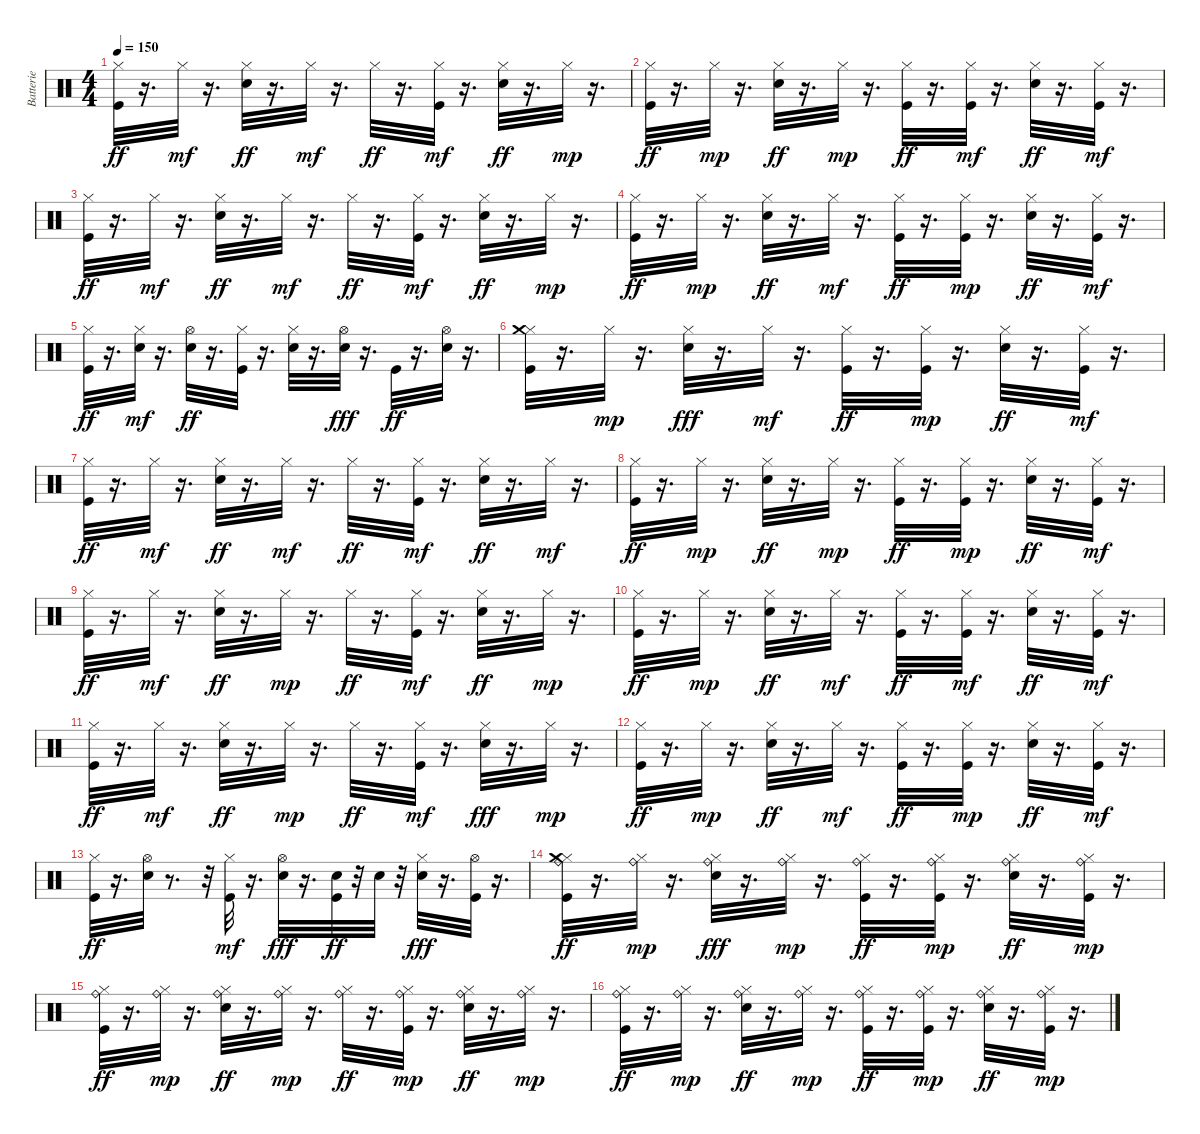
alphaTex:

\track ("Batterie" "Batterie") {instrument percussion}
\staff {score}
\articulation defaults
\ts (4 4)
\tempo 150
\clef neutral
\ks c
("Kick (hit)" "Hi-Hat (closed)").32{dy ff} r.16{d} "Hi-Hat (closed)".32{dy mf} r.16{d} ("Snare (hit) 2" "Hi-Hat (closed)").32{dy ff} r.16{d} "Hi-Hat (closed)".32{dy mf} r.16{d} "Hi-Hat (closed)".32{dy ff} r.16{d} ("Kick (hit)" "Hi-Hat (closed)").32{dy mf} r.16{d} ("Snare (hit) 2" "Hi-Hat (closed)").32{dy ff} r.16{d} "Hi-Hat (closed)".32{dy mp} r.16{d} |
("Kick (hit)" "Hi-Hat (closed)").32{dy ff} r.16{d} "Hi-Hat (closed)".32{dy mp} r.16{d} ("Snare (hit) 2" "Hi-Hat (closed)").32{dy ff} r.16{d} "Hi-Hat (closed)".32{dy mp} r.16{d} ("Kick (hit)" "Hi-Hat (closed)").32{dy ff} r.16{d} ("Kick (hit)" "Hi-Hat (closed)").32{dy mf} r.16{d} ("Snare (hit) 2" "Hi-Hat (closed)").32{dy ff} r.16{d} ("Kick (hit)" "Hi-Hat (closed)").32{dy mf} r.16{d} |
("Kick (hit)" "Hi-Hat (closed)").32{dy ff} r.16{d} "Hi-Hat (closed)".32{dy mf} r.16{d} ("Snare (hit) 2" "Hi-Hat (closed)").32{dy ff} r.16{d} "Hi-Hat (closed)".32{dy mf} r.16{d} "Hi-Hat (closed)".32{dy ff} r.16{d} ("Kick (hit)" "Hi-Hat (closed)").32{dy mf} r.16{d} ("Snare (hit) 2" "Hi-Hat (closed)").32{dy ff} r.16{d} "Hi-Hat (closed)".32{dy mp} r.16{d} |
("Kick (hit)" "Hi-Hat (closed)").32{dy ff} r.16{d} "Hi-Hat (closed)".32{dy mp} r.16{d} ("Snare (hit) 2" "Hi-Hat (closed)").32{dy ff} r.16{d} "Hi-Hat (closed)".32{dy mf} r.16{d} ("Kick (hit)" "Hi-Hat (closed)").32{dy ff} r.16{d} ("Kick (hit)" "Hi-Hat (closed)").32{dy mp} r.16{d} ("Snare (hit) 2" "Hi-Hat (closed)").32{dy ff} r.16{d} ("Kick (hit)" "Hi-Hat (closed)").32{dy mf} r.16{d} |
("Kick (hit)" "Hi-Hat (closed)").32{dy ff} r.16{d} ("Snare (hit) 2" "Hi-Hat (closed)").32{dy mf} r.16{d} ("Snare (hit) 2" "Hi-Hat (open)").32{dy ff} r.16{d} ("Kick (hit)" "Hi-Hat (closed)").32 r.16{d} ("Snare (hit) 2" "Hi-Hat (closed)").32 r.16{d} ("Snare (hit) 2" "Hi-Hat (open)").32{dy fff} r.16{d} "Kick (hit)".32{dy ff} r.16{d} ("Snare (hit) 2" "Hi-Hat (open)").32 r.16{d} |
("Kick (hit)" "Hi-Hat (closed)" "Crash medium (hit)").32 r.16{d} "Hi-Hat (closed)".32{dy mp} r.16{d} ("Snare (hit) 2" "Hi-Hat (closed)").32{dy fff} r.16{d} "Hi-Hat (closed)".32{dy mf} r.16{d} ("Kick (hit)" "Hi-Hat (closed)").32{dy ff} r.16{d} ("Kick (hit)" "Hi-Hat (closed)").32{dy mp} r.16{d} ("Snare (hit) 2" "Hi-Hat (closed)").32{dy ff} r.16{d} ("Kick (hit)" "Hi-Hat (closed)").32{dy mf} r.16{d} |
("Kick (hit)" "Hi-Hat (closed)").32{dy ff} r.16{d} "Hi-Hat (closed)".32{dy mf} r.16{d} ("Snare (hit) 2" "Hi-Hat (closed)").32{dy ff} r.16{d} "Hi-Hat (closed)".32{dy mf} r.16{d} "Hi-Hat (closed)".32{dy ff} r.16{d} ("Kick (hit)" "Hi-Hat (closed)").32{dy mf} r.16{d} ("Snare (hit) 2" "Hi-Hat (closed)").32{dy ff} r.16{d} "Hi-Hat (closed)".32{dy mf} r.16{d} |
("Kick (hit)" "Hi-Hat (closed)").32{dy ff} r.16{d} "Hi-Hat (closed)".32{dy mp} r.16{d} ("Snare (hit) 2" "Hi-Hat (closed)").32{dy ff} r.16{d} "Hi-Hat (closed)".32{dy mp} r.16{d} ("Kick (hit)" "Hi-Hat (closed)").32{dy ff} r.16{d} ("Kick (hit)" "Hi-Hat (closed)").32{dy mp} r.16{d} ("Snare (hit) 2" "Hi-Hat (closed)").32{dy ff} r.16{d} ("Kick (hit)" "Hi-Hat (closed)").32{dy mf} r.16{d} |
("Kick (hit)" "Hi-Hat (closed)").32{dy ff} r.16{d} "Hi-Hat (closed)".32{dy mf} r.16{d} ("Snare (hit) 2" "Hi-Hat (closed)").32{dy ff} r.16{d} "Hi-Hat (closed)".32{dy mp} r.16{d} "Hi-Hat (closed)".32{dy ff} r.16{d} ("Kick (hit)" "Hi-Hat (closed)").32{dy mf} r.16{d} ("Snare (hit) 2" "Hi-Hat (closed)").32{dy ff} r.16{d} "Hi-Hat (closed)".32{dy mp} r.16{d} |
("Kick (hit)" "Hi-Hat (closed)").32{dy ff} r.16{d} "Hi-Hat (closed)".32{dy mp} r.16{d} ("Snare (hit) 2" "Hi-Hat (closed)").32{dy ff} r.16{d} "Hi-Hat (closed)".32{dy mf} r.16{d} ("Kick (hit)" "Hi-Hat (closed)").32{dy ff} r.16{d} ("Kick (hit)" "Hi-Hat (closed)").32{dy mf} r.16{d} ("Snare (hit) 2" "Hi-Hat (closed)").32{dy ff} r.16{d} ("Kick (hit)" "Hi-Hat (closed)").32{dy mf} r.16{d} |
("Kick (hit)" "Hi-Hat (closed)").32{dy ff} r.16{d} "Hi-Hat (closed)".32{dy mf} r.16{d} ("Snare (hit) 2" "Hi-Hat (closed)").32{dy ff} r.16{d} "Hi-Hat (closed)".32{dy mp} r.16{d} "Hi-Hat (closed)".32{dy ff} r.16{d} ("Kick (hit)" "Hi-Hat (closed)").32{dy mf} r.16{d} ("Snare (hit) 2" "Hi-Hat (closed)").32{dy fff} r.16{d} "Hi-Hat (closed)".32{dy mp} r.16{d} |
("Kick (hit)" "Hi-Hat (closed)").32{dy ff} r.16{d} "Hi-Hat (closed)".32{dy mp} r.16{d} ("Snare (hit) 2" "Hi-Hat (closed)").32{dy ff} r.16{d} "Hi-Hat (closed)".32{dy mf} r.16{d} ("Kick (hit)" "Hi-Hat (closed)").32{dy ff} r.16{d} ("Kick (hit)" "Hi-Hat (closed)").32{dy mp} r.16{d} ("Snare (hit) 2" "Hi-Hat (closed)").32{dy ff} r.16{d} ("Kick (hit)" "Hi-Hat (closed)").32{dy mf} r.16{d} |
("Kick (hit)" "Hi-Hat (closed)").32{dy ff} r.16{d} ("Snare (hit) 2" "Hi-Hat (open)").32 r.8{d} r.32 ("Kick (hit)" "Hi-Hat (closed)").32{dy mf} r.16{d} ("Snare (hit) 2" "Hi-Hat (open)").32{dy fff} r.16{d} ("Kick (hit)" "Snare (hit) 2").32{dy ff} r.32 "Snare (hit) 2".32 r.32 ("Snare (hit) 2" "Hi-Hat (closed)").32{dy fff} r.16{d} ("Kick (hit)" "Hi-Hat (open)").32 r.16{d} |
("Kick (hit)" "Hi-Hat (closed)" "Ride (bell)" "Crash medium (hit)").32{dy ff} r.16{d} ("Hi-Hat (closed)" "Ride (bell)").32{dy mp} r.16{d} ("Snare (hit) 2" "Hi-Hat (closed)" "Ride (bell)").32{dy fff} r.16{d} ("Hi-Hat (closed)" "Ride (bell)").32{dy mp} r.16{d} ("Kick (hit)" "Hi-Hat (closed)" "Ride (bell)").32{dy ff} r.16{d} ("Kick (hit)" "Hi-Hat (closed)" "Ride (bell)").32{dy mp} r.16{d} ("Snare (hit) 2" "Hi-Hat (closed)" "Ride (bell)").32{dy ff} r.16{d} ("Kick (hit)" "Hi-Hat (closed)" "Ride (bell)").32{dy mp} r.16{d} |
("Kick (hit)" "Hi-Hat (closed)" "Ride (bell)").32{dy ff} r.16{d} ("Hi-Hat (closed)" "Ride (bell)").32{dy mp} r.16{d} ("Snare (hit) 2" "Hi-Hat (closed)" "Ride (bell)").32{dy ff} r.16{d} ("Hi-Hat (closed)" "Ride (bell)").32{dy mp} r.16{d} ("Hi-Hat (closed)" "Ride (bell)").32{dy ff} r.16{d} ("Kick (hit)" "Hi-Hat (closed)" "Ride (bell)").32{dy mp} r.16{d} ("Snare (hit) 2" "Hi-Hat (closed)" "Ride (bell)").32{dy ff} r.16{d} ("Hi-Hat (closed)" "Ride (bell)").32{dy mp} r.16{d} |
("Kick (hit)" "Hi-Hat (closed)" "Ride (bell)").32{dy ff} r.16{d} ("Hi-Hat (closed)" "Ride (bell)").32{dy mp} r.16{d} ("Snare (hit) 2" "Hi-Hat (closed)" "Ride (bell)").32{dy ff} r.16{d} ("Hi-Hat (closed)" "Ride (bell)").32{dy mp} r.16{d} ("Kick (hit)" "Hi-Hat (closed)" "Ride (bell)").32{dy ff} r.16{d} ("Kick (hit)" "Hi-Hat (closed)" "Ride (bell)").32{dy mp} r.16{d} ("Snare (hit) 2" "Hi-Hat (closed)" "Ride (bell)").32{dy ff} r.16{d} ("Kick (hit)" "Hi-Hat (closed)" "Ride (bell)").32{dy mp} r.16{d}
